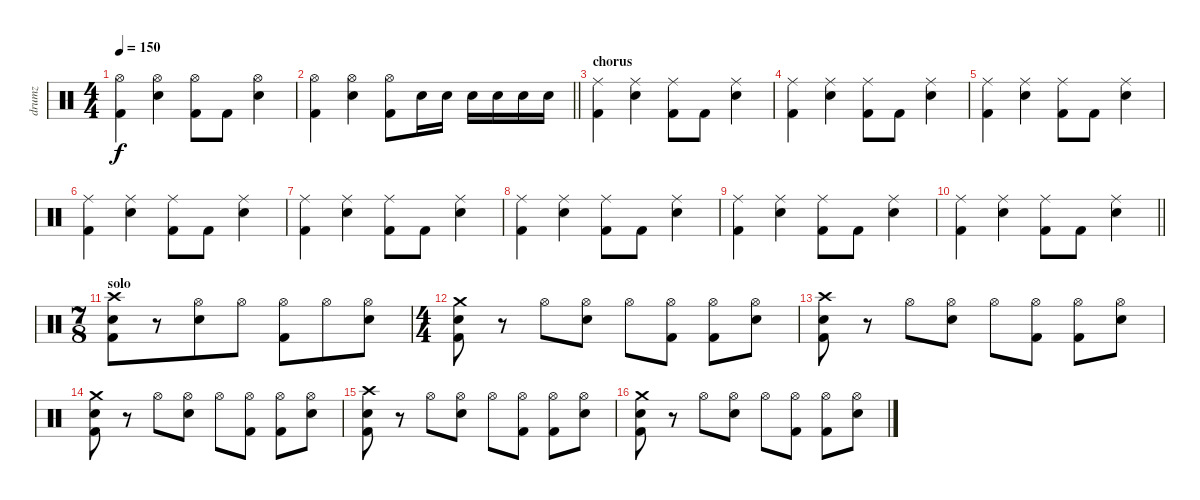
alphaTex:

\track ("drumz" "drumz") {instrument percussion}
\staff {score}
\articulation defaults
\ts (4 4)
\tempo 150
\clef neutral
\ks c
("Hi-Hat (open)" "Kick (hit) 2").4{dy f} ("Hi-Hat (open)" "Electric Snare (hit)").4 ("Hi-Hat (open)" "Kick (hit) 2").8 "Kick (hit) 2".8 ("Hi-Hat (open)" "Electric Snare (hit)").4 |
\barLineRight lightlight
("Hi-Hat (open)" "Kick (hit) 2").4 ("Hi-Hat (open)" "Electric Snare (hit)").4 ("Hi-Hat (open)" "Kick (hit) 2").8 "Electric Snare (hit)".16 "Electric Snare (hit)".16 "Electric Snare (hit)".16 "Electric Snare (hit)".16 "Electric Snare (hit)".16 "Electric Snare (hit)".16 |
\section ("" "chorus")
("Ride (middle)" "Kick (hit) 2").4 ("Ride (middle)" "Electric Snare (hit)").4 ("Ride (middle)" "Kick (hit) 2").8 "Kick (hit) 2".8 ("Ride (middle)" "Electric Snare (hit)").4 |
("Ride (middle)" "Kick (hit) 2").4 ("Ride (middle)" "Electric Snare (hit)").4 ("Ride (middle)" "Kick (hit) 2").8 "Kick (hit) 2".8 ("Ride (middle)" "Electric Snare (hit)").4 |
("Ride (middle)" "Kick (hit) 2").4 ("Ride (middle)" "Electric Snare (hit)").4 ("Ride (middle)" "Kick (hit) 2").8 "Kick (hit) 2".8 ("Ride (middle)" "Electric Snare (hit)").4 |
("Ride (middle)" "Kick (hit) 2").4 ("Ride (middle)" "Electric Snare (hit)").4 ("Ride (middle)" "Kick (hit) 2").8 "Kick (hit) 2".8 ("Ride (middle)" "Electric Snare (hit)").4 |
("Ride (middle)" "Kick (hit) 2").4 ("Ride (middle)" "Electric Snare (hit)").4 ("Ride (middle)" "Kick (hit) 2").8 "Kick (hit) 2".8 ("Ride (middle)" "Electric Snare (hit)").4 |
("Ride (middle)" "Kick (hit) 2").4 ("Ride (middle)" "Electric Snare (hit)").4 ("Ride (middle)" "Kick (hit) 2").8 "Kick (hit) 2".8 ("Ride (middle)" "Electric Snare (hit)").4 |
("Ride (middle)" "Kick (hit) 2").4 ("Ride (middle)" "Electric Snare (hit)").4 ("Ride (middle)" "Kick (hit) 2").8 "Kick (hit) 2".8 ("Ride (middle)" "Electric Snare (hit)").4 |
\barLineRight lightlight
("Ride (middle)" "Kick (hit) 2").4 ("Ride (middle)" "Electric Snare (hit)").4 ("Ride (middle)" "Kick (hit) 2").8 "Kick (hit) 2".8 ("Ride (middle)" "Electric Snare (hit)").4 |
\ts (7 8)
\section ("" "solo")
("Crash high (hit)" "Electric Snare (hit)" "Kick (hit) 2").8 r.8 ("Hi-Hat (open)" "Electric Snare (hit)").8 "Hi-Hat (open)".8 ("Hi-Hat (open)" "Kick (hit) 2").8 "Hi-Hat (open)".8 ("Hi-Hat (open)" "Electric Snare (hit)").8 |
\ts (4 4)
("Crash medium (hit)" "Electric Snare (hit)" "Kick (hit) 2").8 r.8 "Hi-Hat (open)".8 ("Hi-Hat (open)" "Electric Snare (hit)").8 "Hi-Hat (open)".8 ("Hi-Hat (open)" "Kick (hit) 2").8 ("Hi-Hat (open)" "Kick (hit) 2").8 ("Hi-Hat (open)" "Electric Snare (hit)").8 |
("Crash high (hit)" "Electric Snare (hit)" "Kick (hit) 2").8 r.8 "Hi-Hat (open)".8 ("Hi-Hat (open)" "Electric Snare (hit)").8 "Hi-Hat (open)".8 ("Hi-Hat (open)" "Kick (hit) 2").8 ("Hi-Hat (open)" "Kick (hit) 2").8 ("Hi-Hat (open)" "Electric Snare (hit)").8 |
("Crash medium (hit)" "Electric Snare (hit)" "Kick (hit) 2").8 r.8 "Hi-Hat (open)".8 ("Hi-Hat (open)" "Electric Snare (hit)").8 "Hi-Hat (open)".8 ("Hi-Hat (open)" "Kick (hit) 2").8 ("Hi-Hat (open)" "Kick (hit) 2").8 ("Hi-Hat (open)" "Electric Snare (hit)").8 |
("Crash high (hit)" "Electric Snare (hit)" "Kick (hit) 2").8 r.8 "Hi-Hat (open)".8 ("Hi-Hat (open)" "Electric Snare (hit)").8 "Hi-Hat (open)".8 ("Hi-Hat (open)" "Kick (hit) 2").8 ("Hi-Hat (open)" "Kick (hit) 2").8 ("Hi-Hat (open)" "Electric Snare (hit)").8 |
("Crash medium (hit)" "Electric Snare (hit)" "Kick (hit) 2").8 r.8 "Hi-Hat (open)".8 ("Hi-Hat (open)" "Electric Snare (hit)").8 "Hi-Hat (open)".8 ("Hi-Hat (open)" "Kick (hit) 2").8 ("Hi-Hat (open)" "Kick (hit) 2").8 ("Hi-Hat (open)" "Electric Snare (hit)").8
